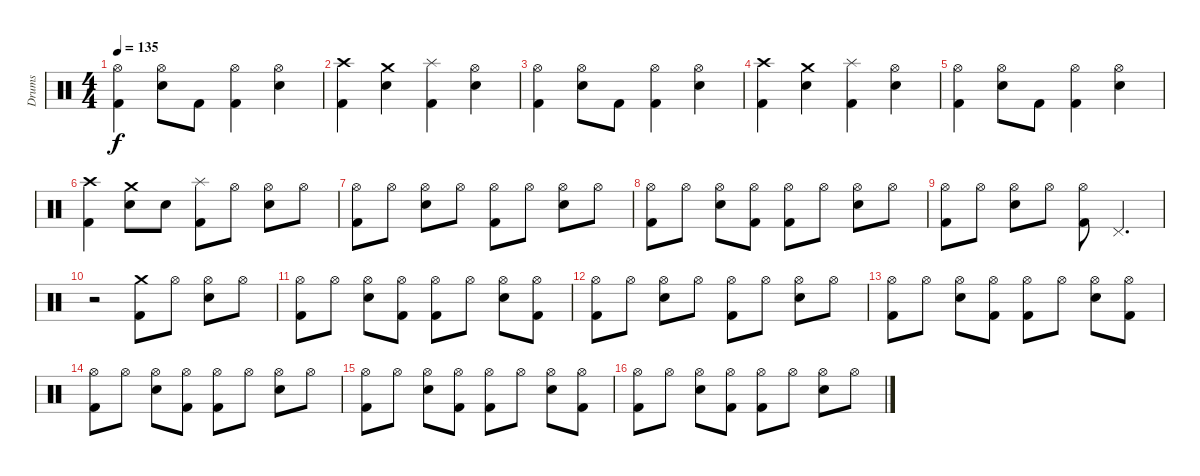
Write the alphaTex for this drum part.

\track ("Drums" "Drums") {instrument percussion}
\staff {score}
\articulation defaults
\ts (4 4)
\tempo 135
\clef neutral
\ks c
("Hi-Hat (open)" "Kick (hit) 2").4{dy f} ("Hi-Hat (open)" "Electric Snare (hit)").8 "Kick (hit) 2".8 ("Hi-Hat (open)" "Kick (hit) 2").4 ("Hi-Hat (open)" "Electric Snare (hit)").4 |
("Crash high (hit)" "Kick (hit) 2").4 ("Crash medium (hit)" "Electric Snare (hit)").4 ("Splash (hit)" "Kick (hit) 2").4 ("Hi-Hat (open)" "Electric Snare (hit)").4 |
("Hi-Hat (open)" "Kick (hit) 2").4 ("Hi-Hat (open)" "Electric Snare (hit)").8 "Kick (hit) 2".8 ("Hi-Hat (open)" "Kick (hit) 2").4 ("Hi-Hat (open)" "Electric Snare (hit)").4 |
("Crash high (hit)" "Kick (hit) 2").4 ("Crash medium (hit)" "Electric Snare (hit)").4 ("Splash (hit)" "Kick (hit) 2").4 ("Hi-Hat (open)" "Electric Snare (hit)").4 |
("Hi-Hat (open)" "Kick (hit) 2").4 ("Hi-Hat (open)" "Electric Snare (hit)").8 "Kick (hit) 2".8 ("Hi-Hat (open)" "Kick (hit) 2").4 ("Hi-Hat (open)" "Electric Snare (hit)").4 |
("Crash high (hit)" "Kick (hit) 2").4 ("Crash medium (hit)" "Electric Snare (hit)").8 "Electric Snare (hit)".8 ("Splash (hit)" "Kick (hit) 2").8 "Hi-Hat (open)".8 ("Hi-Hat (open)" "Electric Snare (hit)").8 "Hi-Hat (open)".8 |
("Hi-Hat (open)" "Kick (hit) 2").8 "Hi-Hat (open)".8 ("Hi-Hat (open)" "Electric Snare (hit)").8 "Hi-Hat (open)".8 ("Hi-Hat (open)" "Kick (hit) 2").8 "Hi-Hat (open)".8 ("Hi-Hat (open)" "Electric Snare (hit)").8 "Hi-Hat (open)".8 |
("Hi-Hat (open)" "Kick (hit) 2").8 "Hi-Hat (open)".8 ("Hi-Hat (open)" "Electric Snare (hit)").8 ("Hi-Hat (open)" "Kick (hit) 2").8 ("Hi-Hat (open)" "Kick (hit) 2").8 "Hi-Hat (open)".8 ("Hi-Hat (open)" "Electric Snare (hit)").8 "Hi-Hat (open)".8 |
("Hi-Hat (open)" "Kick (hit) 2").8 "Hi-Hat (open)".8 ("Hi-Hat (open)" "Electric Snare (hit)").8 "Hi-Hat (open)".8 ("Hi-Hat (open)" "Kick (hit) 2").8 "Pedal Hi-Hat (hit)".4{d} |
r.2 ("Crash medium (hit)" "Kick (hit) 2").8 "Hi-Hat (open)".8 ("Hi-Hat (open)" "Electric Snare (hit)").8 "Hi-Hat (open)".8 |
("Hi-Hat (open)" "Kick (hit) 2").8 "Hi-Hat (open)".8 ("Hi-Hat (open)" "Electric Snare (hit)").8 ("Hi-Hat (open)" "Kick (hit) 2").8 ("Hi-Hat (open)" "Kick (hit) 2").8 "Hi-Hat (open)".8 ("Hi-Hat (open)" "Electric Snare (hit)").8 ("Hi-Hat (open)" "Kick (hit) 2").8 |
("Hi-Hat (open)" "Kick (hit) 2").8 "Hi-Hat (open)".8 ("Hi-Hat (open)" "Electric Snare (hit)").8 "Hi-Hat (open)".8 ("Hi-Hat (open)" "Kick (hit) 2").8 "Hi-Hat (open)".8 ("Hi-Hat (open)" "Electric Snare (hit)").8 "Hi-Hat (open)".8 |
("Hi-Hat (open)" "Kick (hit) 2").8 "Hi-Hat (open)".8 ("Hi-Hat (open)" "Electric Snare (hit)").8 ("Hi-Hat (open)" "Kick (hit) 2").8 ("Hi-Hat (open)" "Kick (hit) 2").8 "Hi-Hat (open)".8 ("Hi-Hat (open)" "Electric Snare (hit)").8 ("Hi-Hat (open)" "Kick (hit) 2").8 |
("Hi-Hat (open)" "Kick (hit) 2").8 "Hi-Hat (open)".8 ("Hi-Hat (open)" "Electric Snare (hit)").8 ("Hi-Hat (open)" "Kick (hit) 2").8 ("Hi-Hat (open)" "Kick (hit) 2").8 "Hi-Hat (open)".8 ("Hi-Hat (open)" "Electric Snare (hit)").8 "Hi-Hat (open)".8 |
("Hi-Hat (open)" "Kick (hit) 2").8 "Hi-Hat (open)".8 ("Hi-Hat (open)" "Electric Snare (hit)").8 ("Hi-Hat (open)" "Kick (hit) 2").8 ("Hi-Hat (open)" "Kick (hit) 2").8 "Hi-Hat (open)".8 ("Hi-Hat (open)" "Electric Snare (hit)").8 ("Hi-Hat (open)" "Kick (hit) 2").8 |
("Hi-Hat (open)" "Kick (hit) 2").8 "Hi-Hat (open)".8 ("Hi-Hat (open)" "Electric Snare (hit)").8 ("Hi-Hat (open)" "Kick (hit) 2").8 ("Hi-Hat (open)" "Kick (hit) 2").8 "Hi-Hat (open)".8 ("Hi-Hat (open)" "Electric Snare (hit)").8 "Hi-Hat (open)".8
